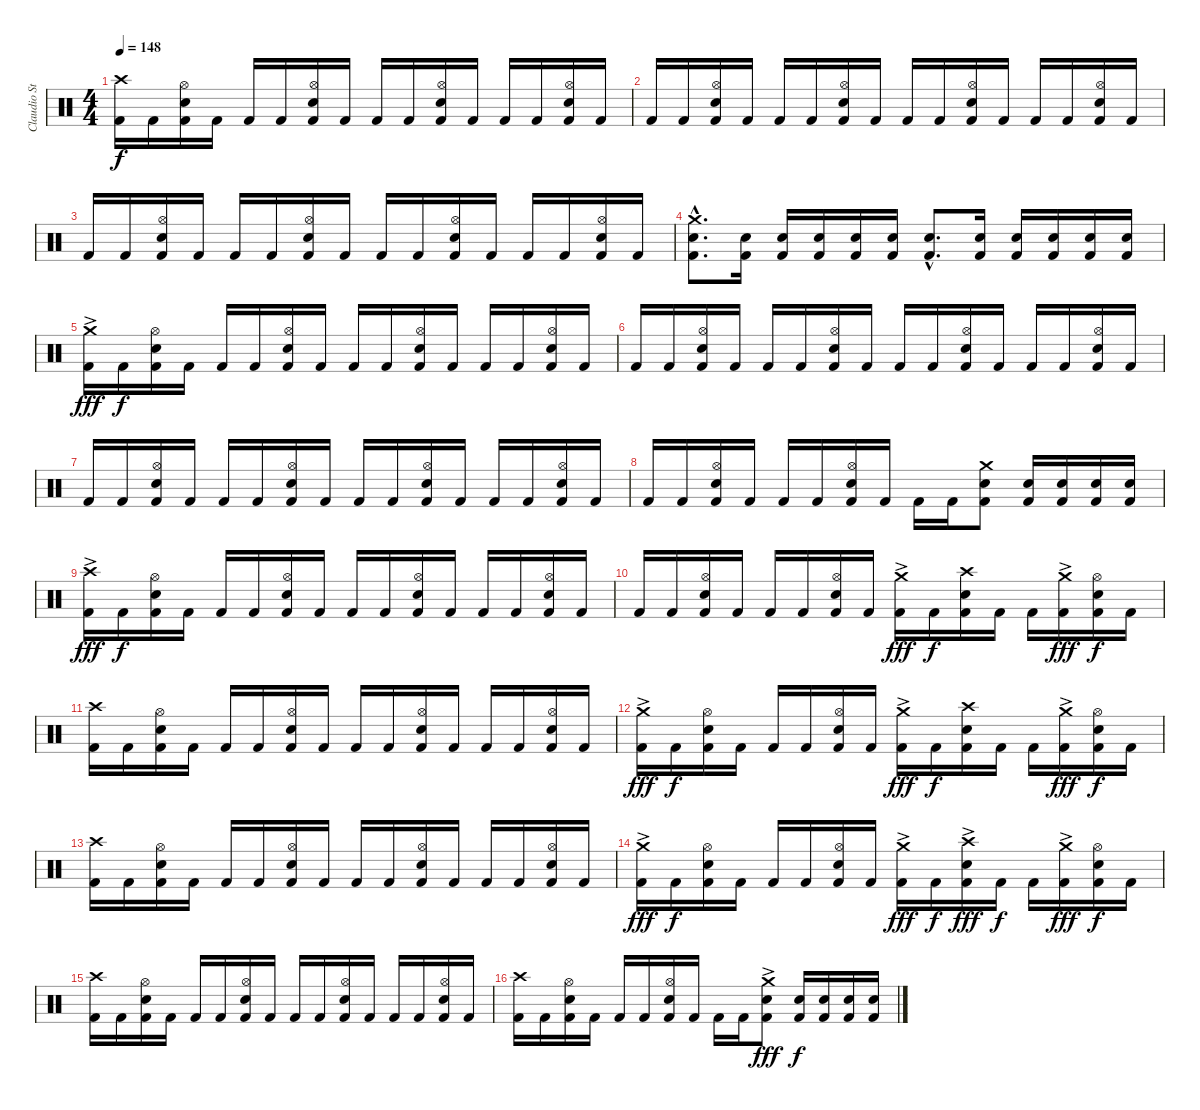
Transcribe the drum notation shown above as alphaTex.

\track ("Claudio Strunz" "Claudio St") {instrument percussion}
\staff {score}
\articulation defaults
\ts (4 4)
\tempo 148
\clef neutral
\ks c
("Crash high (hit)" "Kick (hit) 2").16{dy f} "Kick (hit) 2".16 ("Hi-Hat (open)" "Electric Snare (hit)" "Kick (hit) 2").16 "Kick (hit) 2".16 "Kick (hit) 2".16 "Kick (hit) 2".16 ("Hi-Hat (open)" "Electric Snare (hit)" "Kick (hit) 2").16 "Kick (hit) 2".16 "Kick (hit) 2".16 "Kick (hit) 2".16 ("Hi-Hat (open)" "Electric Snare (hit)" "Kick (hit) 2").16 "Kick (hit) 2".16 "Kick (hit) 2".16 "Kick (hit) 2".16 ("Hi-Hat (open)" "Electric Snare (hit)" "Kick (hit) 2").16 "Kick (hit) 2".16 |
"Kick (hit) 2".16 "Kick (hit) 2".16 ("Hi-Hat (open)" "Electric Snare (hit)" "Kick (hit) 2").16 "Kick (hit) 2".16 "Kick (hit) 2".16 "Kick (hit) 2".16 ("Hi-Hat (open)" "Electric Snare (hit)" "Kick (hit) 2").16 "Kick (hit) 2".16 "Kick (hit) 2".16 "Kick (hit) 2".16 ("Hi-Hat (open)" "Electric Snare (hit)" "Kick (hit) 2").16 "Kick (hit) 2".16 "Kick (hit) 2".16 "Kick (hit) 2".16 ("Hi-Hat (open)" "Electric Snare (hit)" "Kick (hit) 2").16 "Kick (hit) 2".16 |
"Kick (hit) 2".16 "Kick (hit) 2".16 ("Hi-Hat (open)" "Electric Snare (hit)" "Kick (hit) 2").16 "Kick (hit) 2".16 "Kick (hit) 2".16 "Kick (hit) 2".16 ("Hi-Hat (open)" "Electric Snare (hit)" "Kick (hit) 2").16 "Kick (hit) 2".16 "Kick (hit) 2".16 "Kick (hit) 2".16 ("Hi-Hat (open)" "Electric Snare (hit)" "Kick (hit) 2").16 "Kick (hit) 2".16 "Kick (hit) 2".16 "Kick (hit) 2".16 ("Hi-Hat (open)" "Electric Snare (hit)" "Kick (hit) 2").16 "Kick (hit) 2".16 |
("Crash medium (hit)"{hac} "Electric Snare (hit)"{hac} "Kick (hit) 2"{hac}).8{d} ("Electric Snare (hit)" "Kick (hit) 2").16 ("Electric Snare (hit)" "Kick (hit) 2").16 ("Electric Snare (hit)" "Kick (hit) 2").16 ("Electric Snare (hit)" "Kick (hit) 2").16 ("Electric Snare (hit)" "Kick (hit) 2").16 ("Electric Snare (hit)"{hac} "Kick (hit) 2"{hac}).8{d} ("Electric Snare (hit)" "Kick (hit) 2").16 ("Electric Snare (hit)" "Kick (hit) 2").16 ("Electric Snare (hit)" "Kick (hit) 2").16 ("Electric Snare (hit)" "Kick (hit) 2").16 ("Electric Snare (hit)" "Kick (hit) 2").16 |
("Crash medium (hit)"{ac} "Kick (hit) 2").16{dy fff} "Kick (hit) 2".16{dy f} ("Hi-Hat (open)" "Electric Snare (hit)" "Kick (hit) 2").16 "Kick (hit) 2".16 "Kick (hit) 2".16 "Kick (hit) 2".16 ("Hi-Hat (open)" "Electric Snare (hit)" "Kick (hit) 2").16 "Kick (hit) 2".16 "Kick (hit) 2".16 "Kick (hit) 2".16 ("Hi-Hat (open)" "Electric Snare (hit)" "Kick (hit) 2").16 "Kick (hit) 2".16 "Kick (hit) 2".16 "Kick (hit) 2".16 ("Hi-Hat (open)" "Electric Snare (hit)" "Kick (hit) 2").16 "Kick (hit) 2".16 |
"Kick (hit) 2".16 "Kick (hit) 2".16 ("Hi-Hat (open)" "Electric Snare (hit)" "Kick (hit) 2").16 "Kick (hit) 2".16 "Kick (hit) 2".16 "Kick (hit) 2".16 ("Hi-Hat (open)" "Electric Snare (hit)" "Kick (hit) 2").16 "Kick (hit) 2".16 "Kick (hit) 2".16 "Kick (hit) 2".16 ("Hi-Hat (open)" "Electric Snare (hit)" "Kick (hit) 2").16 "Kick (hit) 2".16 "Kick (hit) 2".16 "Kick (hit) 2".16 ("Hi-Hat (open)" "Electric Snare (hit)" "Kick (hit) 2").16 "Kick (hit) 2".16 |
"Kick (hit) 2".16 "Kick (hit) 2".16 ("Hi-Hat (open)" "Electric Snare (hit)" "Kick (hit) 2").16 "Kick (hit) 2".16 "Kick (hit) 2".16 "Kick (hit) 2".16 ("Hi-Hat (open)" "Electric Snare (hit)" "Kick (hit) 2").16 "Kick (hit) 2".16 "Kick (hit) 2".16 "Kick (hit) 2".16 ("Hi-Hat (open)" "Electric Snare (hit)" "Kick (hit) 2").16 "Kick (hit) 2".16 "Kick (hit) 2".16 "Kick (hit) 2".16 ("Hi-Hat (open)" "Electric Snare (hit)" "Kick (hit) 2").16 "Kick (hit) 2".16 |
"Kick (hit) 2".16 "Kick (hit) 2".16 ("Hi-Hat (open)" "Electric Snare (hit)" "Kick (hit) 2").16 "Kick (hit) 2".16 "Kick (hit) 2".16 "Kick (hit) 2".16 ("Hi-Hat (open)" "Electric Snare (hit)" "Kick (hit) 2").16 "Kick (hit) 2".16 "Kick (hit) 2".16 "Kick (hit) 2".16 ("Crash medium (hit)" "Electric Snare (hit)" "Kick (hit) 2").8 ("Electric Snare (hit)" "Kick (hit) 2").16 ("Electric Snare (hit)" "Kick (hit) 2").16 ("Electric Snare (hit)" "Kick (hit) 2").16 ("Electric Snare (hit)" "Kick (hit) 2").16 |
("Crash high (hit)"{ac} "Kick (hit) 2").16{dy fff} "Kick (hit) 2".16{dy f} ("Hi-Hat (open)" "Electric Snare (hit)" "Kick (hit) 2").16 "Kick (hit) 2".16 "Kick (hit) 2".16 "Kick (hit) 2".16 ("Hi-Hat (open)" "Electric Snare (hit)" "Kick (hit) 2").16 "Kick (hit) 2".16 "Kick (hit) 2".16 "Kick (hit) 2".16 ("Hi-Hat (open)" "Electric Snare (hit)" "Kick (hit) 2").16 "Kick (hit) 2".16 "Kick (hit) 2".16 "Kick (hit) 2".16 ("Hi-Hat (open)" "Electric Snare (hit)" "Kick (hit) 2").16 "Kick (hit) 2".16 |
"Kick (hit) 2".16 "Kick (hit) 2".16 ("Hi-Hat (open)" "Electric Snare (hit)" "Kick (hit) 2").16 "Kick (hit) 2".16 "Kick (hit) 2".16 "Kick (hit) 2".16 ("Hi-Hat (open)" "Electric Snare (hit)" "Kick (hit) 2").16 "Kick (hit) 2".16 ("Crash medium (hit)"{ac} "Kick (hit) 2").16{dy fff} "Kick (hit) 2".16{dy f} ("Crash high (hit)" "Electric Snare (hit)" "Kick (hit) 2").16 "Kick (hit) 2".16 "Kick (hit) 2".16 ("Crash medium (hit)"{ac} "Kick (hit) 2").16{dy fff} ("Hi-Hat (open)" "Electric Snare (hit)" "Kick (hit) 2").16{dy f} "Kick (hit) 2".16 |
("Crash high (hit)" "Kick (hit) 2").16 "Kick (hit) 2".16 ("Hi-Hat (open)" "Electric Snare (hit)" "Kick (hit) 2").16 "Kick (hit) 2".16 "Kick (hit) 2".16 "Kick (hit) 2".16 ("Hi-Hat (open)" "Electric Snare (hit)" "Kick (hit) 2").16 "Kick (hit) 2".16 "Kick (hit) 2".16 "Kick (hit) 2".16 ("Hi-Hat (open)" "Electric Snare (hit)" "Kick (hit) 2").16 "Kick (hit) 2".16 "Kick (hit) 2".16 "Kick (hit) 2".16 ("Hi-Hat (open)" "Electric Snare (hit)" "Kick (hit) 2").16 "Kick (hit) 2".16 |
("Crash medium (hit)"{ac} "Kick (hit) 2").16{dy fff} "Kick (hit) 2".16{dy f} ("Hi-Hat (open)" "Electric Snare (hit)" "Kick (hit) 2").16 "Kick (hit) 2".16 "Kick (hit) 2".16 "Kick (hit) 2".16 ("Hi-Hat (open)" "Electric Snare (hit)" "Kick (hit) 2").16 "Kick (hit) 2".16 ("Crash medium (hit)"{ac} "Kick (hit) 2").16{dy fff} "Kick (hit) 2".16{dy f} ("Crash high (hit)" "Electric Snare (hit)" "Kick (hit) 2").16 "Kick (hit) 2".16 "Kick (hit) 2".16 ("Crash medium (hit)"{ac} "Kick (hit) 2").16{dy fff} ("Hi-Hat (open)" "Electric Snare (hit)" "Kick (hit) 2").16{dy f} "Kick (hit) 2".16 |
("Crash high (hit)" "Kick (hit) 2").16 "Kick (hit) 2".16 ("Hi-Hat (open)" "Electric Snare (hit)" "Kick (hit) 2").16 "Kick (hit) 2".16 "Kick (hit) 2".16 "Kick (hit) 2".16 ("Hi-Hat (open)" "Electric Snare (hit)" "Kick (hit) 2").16 "Kick (hit) 2".16 "Kick (hit) 2".16 "Kick (hit) 2".16 ("Hi-Hat (open)" "Electric Snare (hit)" "Kick (hit) 2").16 "Kick (hit) 2".16 "Kick (hit) 2".16 "Kick (hit) 2".16 ("Hi-Hat (open)" "Electric Snare (hit)" "Kick (hit) 2").16 "Kick (hit) 2".16 |
("Crash medium (hit)"{ac} "Kick (hit) 2").16{dy fff} "Kick (hit) 2".16{dy f} ("Hi-Hat (open)" "Electric Snare (hit)" "Kick (hit) 2").16 "Kick (hit) 2".16 "Kick (hit) 2".16 "Kick (hit) 2".16 ("Hi-Hat (open)" "Electric Snare (hit)" "Kick (hit) 2").16 "Kick (hit) 2".16 ("Crash medium (hit)"{ac} "Kick (hit) 2").16{dy fff} "Kick (hit) 2".16{dy f} ("Crash high (hit)"{ac} "Electric Snare (hit)" "Kick (hit) 2").16{dy fff} "Kick (hit) 2".16{dy f} "Kick (hit) 2".16 ("Crash medium (hit)"{ac} "Kick (hit) 2").16{dy fff} ("Hi-Hat (open)" "Electric Snare (hit)" "Kick (hit) 2").16{dy f} "Kick (hit) 2".16 |
("Crash high (hit)" "Kick (hit) 2").16 "Kick (hit) 2".16 ("Hi-Hat (open)" "Electric Snare (hit)" "Kick (hit) 2").16 "Kick (hit) 2".16 "Kick (hit) 2".16 "Kick (hit) 2".16 ("Hi-Hat (open)" "Electric Snare (hit)" "Kick (hit) 2").16 "Kick (hit) 2".16 "Kick (hit) 2".16 "Kick (hit) 2".16 ("Hi-Hat (open)" "Electric Snare (hit)" "Kick (hit) 2").16 "Kick (hit) 2".16 "Kick (hit) 2".16 "Kick (hit) 2".16 ("Hi-Hat (open)" "Electric Snare (hit)" "Kick (hit) 2").16 "Kick (hit) 2".16 |
("Crash high (hit)" "Kick (hit) 2").16 "Kick (hit) 2".16 ("Hi-Hat (open)" "Electric Snare (hit)" "Kick (hit) 2").16 "Kick (hit) 2".16 "Kick (hit) 2".16 "Kick (hit) 2".16 ("Hi-Hat (open)" "Electric Snare (hit)" "Kick (hit) 2").16 "Kick (hit) 2".16 "Kick (hit) 2".16 "Kick (hit) 2".16 ("Crash medium (hit)"{ac} "Electric Snare (hit)" "Kick (hit) 2").8{dy fff} ("Electric Snare (hit)" "Kick (hit) 2").16{dy f} ("Electric Snare (hit)" "Kick (hit) 2").16 ("Electric Snare (hit)" "Kick (hit) 2").16 ("Electric Snare (hit)" "Kick (hit) 2").16
